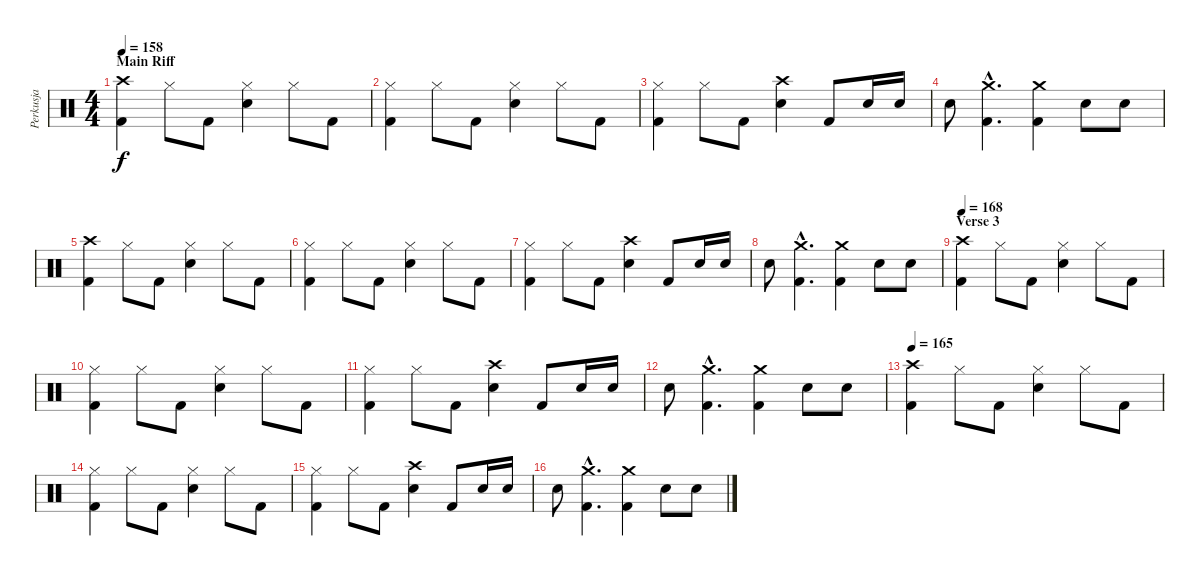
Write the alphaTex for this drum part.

\track ("Perkusja" "Perkusja") {instrument percussion}
\staff {score}
\articulation defaults
\ts (4 4)
\section ("" "Main Riff")
\tempo 158
\clef neutral
\ks c
("Crash high (hit)" "Kick (hit) 2").4{dy f} "Hi-Hat (closed)".8 "Kick (hit) 2".8 ("Hi-Hat (closed)" "Snare (hit) 2").4 "Hi-Hat (closed)".8 "Kick (hit) 2".8 |
("Hi-Hat (closed)" "Kick (hit) 2").4 "Hi-Hat (closed)".8 "Kick (hit) 2".8 ("Hi-Hat (closed)" "Snare (hit) 2").4 "Hi-Hat (closed)".8 "Kick (hit) 2".8 |
("Hi-Hat (closed)" "Kick (hit) 2").4 "Hi-Hat (closed)".8 "Kick (hit) 2".8 ("Crash high (hit)" "Snare (hit) 2").4 "Kick (hit) 2".8 "Snare (hit) 2".16 "Snare (hit) 2".16 |
"Snare (hit) 2".8 ("Crash medium (hit)"{hac} "Kick (hit) 2"{hac}).4{d} ("Crash medium (hit)" "Kick (hit) 2").4 "Snare (hit) 2".8 "Snare (hit) 2".8 |
("Crash high (hit)" "Kick (hit) 2").4 "Hi-Hat (closed)".8 "Kick (hit) 2".8 ("Hi-Hat (closed)" "Snare (hit) 2").4 "Hi-Hat (closed)".8 "Kick (hit) 2".8 |
("Hi-Hat (closed)" "Kick (hit) 2").4 "Hi-Hat (closed)".8 "Kick (hit) 2".8 ("Hi-Hat (closed)" "Snare (hit) 2").4 "Hi-Hat (closed)".8 "Kick (hit) 2".8 |
("Hi-Hat (closed)" "Kick (hit) 2").4 "Hi-Hat (closed)".8 "Kick (hit) 2".8 ("Crash high (hit)" "Snare (hit) 2").4 "Kick (hit) 2".8 "Snare (hit) 2".16 "Snare (hit) 2".16 |
"Snare (hit) 2".8 ("Crash medium (hit)"{hac} "Kick (hit) 2"{hac}).4{d} ("Crash medium (hit)" "Kick (hit) 2").4 "Snare (hit) 2".8 "Snare (hit) 2".8 |
\section ("" "Verse 3")
\tempo 168
("Crash high (hit)" "Kick (hit) 2").4 "Hi-Hat (closed)".8 "Kick (hit) 2".8 ("Hi-Hat (closed)" "Snare (hit) 2").4 "Hi-Hat (closed)".8 "Kick (hit) 2".8 |
("Hi-Hat (closed)" "Kick (hit) 2").4 "Hi-Hat (closed)".8 "Kick (hit) 2".8 ("Hi-Hat (closed)" "Snare (hit) 2").4 "Hi-Hat (closed)".8 "Kick (hit) 2".8 |
("Hi-Hat (closed)" "Kick (hit) 2").4 "Hi-Hat (closed)".8 "Kick (hit) 2".8 ("Crash high (hit)" "Snare (hit) 2").4 "Kick (hit) 2".8 "Snare (hit) 2".16 "Snare (hit) 2".16 |
"Snare (hit) 2".8 ("Crash medium (hit)"{hac} "Kick (hit) 2"{hac}).4{d} ("Crash medium (hit)" "Kick (hit) 2").4 "Snare (hit) 2".8 "Snare (hit) 2".8 |
\tempo 165
("Crash high (hit)" "Kick (hit) 2").4 "Hi-Hat (closed)".8 "Kick (hit) 2".8 ("Hi-Hat (closed)" "Snare (hit) 2").4 "Hi-Hat (closed)".8 "Kick (hit) 2".8 |
("Hi-Hat (closed)" "Kick (hit) 2").4 "Hi-Hat (closed)".8 "Kick (hit) 2".8 ("Hi-Hat (closed)" "Snare (hit) 2").4 "Hi-Hat (closed)".8 "Kick (hit) 2".8 |
("Hi-Hat (closed)" "Kick (hit) 2").4 "Hi-Hat (closed)".8 "Kick (hit) 2".8 ("Crash high (hit)" "Snare (hit) 2").4 "Kick (hit) 2".8 "Snare (hit) 2".16 "Snare (hit) 2".16 |
"Snare (hit) 2".8 ("Crash medium (hit)"{hac} "Kick (hit) 2"{hac}).4{d} ("Crash medium (hit)" "Kick (hit) 2").4 "Snare (hit) 2".8 "Snare (hit) 2".8
